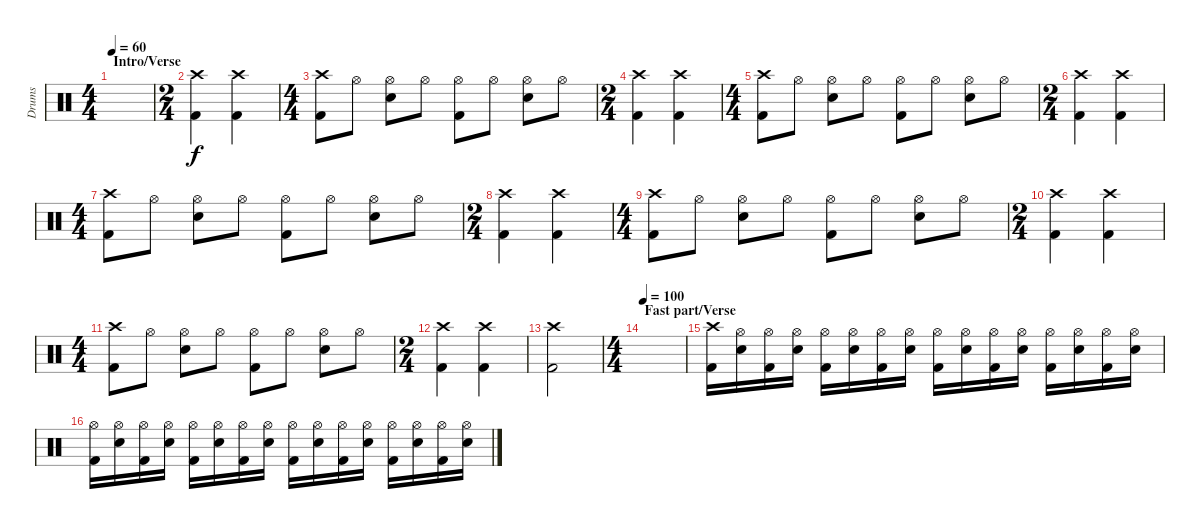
\track ("Drums" "Drums") {instrument percussion}
\staff {score}
\articulation defaults
\ts (4 4)
\section ("" "Intro/Verse")
\tempo 60
\clef neutral
\ks c
|
\ts (2 4)
("Crash high (hit)" "Kick (hit) 2").4 ("Crash high (hit)" "Kick (hit) 2").4 |
\ts (4 4)
("Crash high (hit)" "Kick (hit) 2").8 "Hi-Hat (open)".8 ("Hi-Hat (open)" "Electric Snare (hit)").8 "Hi-Hat (open)".8 ("Hi-Hat (open)" "Kick (hit) 2").8 "Hi-Hat (open)".8 ("Hi-Hat (open)" "Electric Snare (hit)").8 "Hi-Hat (open)".8 |
\ts (2 4)
("Crash high (hit)" "Kick (hit) 2").4 ("Crash high (hit)" "Kick (hit) 2").4 |
\ts (4 4)
("Crash high (hit)" "Kick (hit) 2").8 "Hi-Hat (open)".8 ("Hi-Hat (open)" "Electric Snare (hit)").8 "Hi-Hat (open)".8 ("Hi-Hat (open)" "Kick (hit) 2").8 "Hi-Hat (open)".8 ("Hi-Hat (open)" "Electric Snare (hit)").8 "Hi-Hat (open)".8 |
\ts (2 4)
("Crash high (hit)" "Kick (hit) 2").4 ("Crash high (hit)" "Kick (hit) 2").4 |
\ts (4 4)
("Crash high (hit)" "Kick (hit) 2").8 "Hi-Hat (open)".8 ("Hi-Hat (open)" "Electric Snare (hit)").8 "Hi-Hat (open)".8 ("Hi-Hat (open)" "Kick (hit) 2").8 "Hi-Hat (open)".8 ("Hi-Hat (open)" "Electric Snare (hit)").8 "Hi-Hat (open)".8 |
\ts (2 4)
("Crash high (hit)" "Kick (hit) 2").4 ("Crash high (hit)" "Kick (hit) 2").4 |
\ts (4 4)
("Crash high (hit)" "Kick (hit) 2").8 "Hi-Hat (open)".8 ("Hi-Hat (open)" "Electric Snare (hit)").8 "Hi-Hat (open)".8 ("Hi-Hat (open)" "Kick (hit) 2").8 "Hi-Hat (open)".8 ("Hi-Hat (open)" "Electric Snare (hit)").8 "Hi-Hat (open)".8 |
\ts (2 4)
("Crash high (hit)" "Kick (hit) 2").4 ("Crash high (hit)" "Kick (hit) 2").4 |
\ts (4 4)
("Crash high (hit)" "Kick (hit) 2").8 "Hi-Hat (open)".8 ("Hi-Hat (open)" "Electric Snare (hit)").8 "Hi-Hat (open)".8 ("Hi-Hat (open)" "Kick (hit) 2").8 "Hi-Hat (open)".8 ("Hi-Hat (open)" "Electric Snare (hit)").8 "Hi-Hat (open)".8 |
\ts (2 4)
("Crash high (hit)" "Kick (hit) 2").4 ("Crash high (hit)" "Kick (hit) 2").4 |
("Crash high (hit)" "Kick (hit) 2").2 |
\ts (4 4)
\section ("" "Fast part/Verse")
\tempo 100
|
("Crash high (hit)" "Kick (hit) 2").16 ("Hi-Hat (open)" "Electric Snare (hit)").16 ("Hi-Hat (open)" "Kick (hit) 2").16 ("Hi-Hat (open)" "Electric Snare (hit)").16 ("Hi-Hat (open)" "Kick (hit) 2").16 ("Hi-Hat (open)" "Electric Snare (hit)").16 ("Hi-Hat (open)" "Kick (hit) 2").16 ("Hi-Hat (open)" "Electric Snare (hit)").16 ("Hi-Hat (open)" "Kick (hit) 2").16 ("Hi-Hat (open)" "Electric Snare (hit)").16 ("Hi-Hat (open)" "Kick (hit) 2").16 ("Hi-Hat (open)" "Electric Snare (hit)").16 ("Hi-Hat (open)" "Kick (hit) 2").16 ("Hi-Hat (open)" "Electric Snare (hit)").16 ("Hi-Hat (open)" "Kick (hit) 2").16 ("Hi-Hat (open)" "Electric Snare (hit)").16 |
("Hi-Hat (open)" "Kick (hit) 2").16 ("Hi-Hat (open)" "Electric Snare (hit)").16 ("Hi-Hat (open)" "Kick (hit) 2").16 ("Hi-Hat (open)" "Electric Snare (hit)").16 ("Hi-Hat (open)" "Kick (hit) 2").16 ("Hi-Hat (open)" "Electric Snare (hit)").16 ("Hi-Hat (open)" "Kick (hit) 2").16 ("Hi-Hat (open)" "Electric Snare (hit)").16 ("Hi-Hat (open)" "Kick (hit) 2").16 ("Hi-Hat (open)" "Electric Snare (hit)").16 ("Hi-Hat (open)" "Kick (hit) 2").16 ("Hi-Hat (open)" "Electric Snare (hit)").16 ("Hi-Hat (open)" "Kick (hit) 2").16 ("Hi-Hat (open)" "Electric Snare (hit)").16 ("Hi-Hat (open)" "Kick (hit) 2").16 ("Hi-Hat (open)" "Electric Snare (hit)").16
